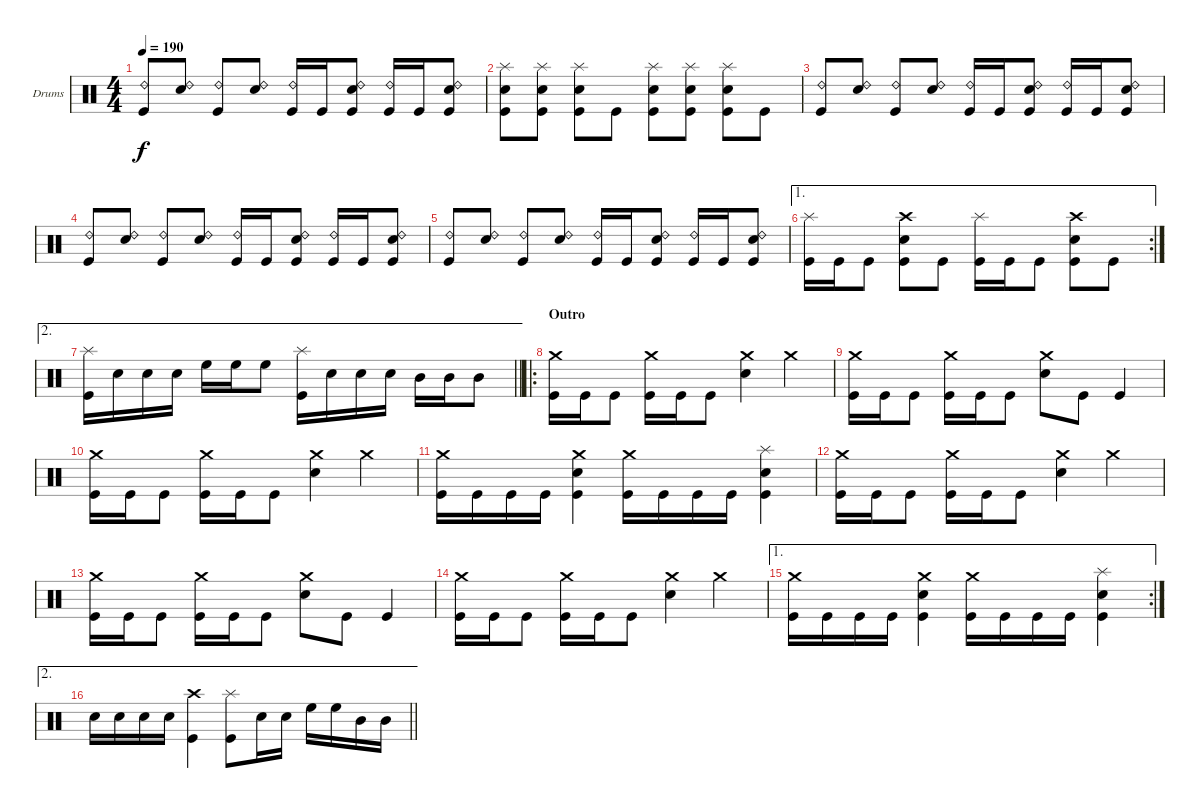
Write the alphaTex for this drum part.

\bracketExtendMode groupsimilarinstruments
\firstSystemTrackNameOrientation horizontal
\otherSystemsTrackNameOrientation horizontal
\track ("Drumkit" "Drums") {instrument percussion}
\staff {score}
\articulation defaults
\ts (4 4)
\tempo 190
\clef neutral
\ks c
("Kick (hit)" "Ride (bell) 2").8{dy f} ("Snare (hit) 2" "Ride (bell) 2").8 ("Kick (hit)" "Ride (bell) 2").8 ("Snare (hit) 2" "Ride (bell) 2").8 ("Kick (hit)" "Ride (bell) 2").16 "Kick (hit)".16 ("Kick (hit)" "Snare (hit) 2" "Ride (bell) 2").8 ("Kick (hit)" "Ride (bell) 2").16 "Kick (hit)".16 ("Kick (hit)" "Snare (hit) 2" "Ride (bell) 2").8 |
("Kick (hit)" "Snare (hit) 2" "Splash (hit)").8 ("Kick (hit)" "Snare (hit) 2" "Splash (hit)").8 ("Kick (hit)" "Snare (hit) 2" "Splash (hit)").8 "Kick (hit)".8 ("Kick (hit)" "Snare (hit) 2" "Splash (hit)").8 ("Kick (hit)" "Snare (hit) 2" "Splash (hit)").8 ("Kick (hit)" "Snare (hit) 2" "Splash (hit)").8 "Kick (hit)".8 |
("Kick (hit)" "Ride (bell) 2").8 ("Snare (hit) 2" "Ride (bell) 2").8 ("Kick (hit)" "Ride (bell) 2").8 ("Snare (hit) 2" "Ride (bell) 2").8 ("Kick (hit)" "Ride (bell) 2").16 "Kick (hit)".16 ("Kick (hit)" "Snare (hit) 2" "Ride (bell) 2").8 ("Kick (hit)" "Ride (bell) 2").16 "Kick (hit)".16 ("Kick (hit)" "Snare (hit) 2" "Ride (bell) 2").8 |
("Kick (hit)" "Ride (bell) 2").8 ("Snare (hit) 2" "Ride (bell) 2").8 ("Kick (hit)" "Ride (bell) 2").8 ("Snare (hit) 2" "Ride (bell) 2").8 ("Kick (hit)" "Ride (bell) 2").16 "Kick (hit)".16 ("Kick (hit)" "Snare (hit) 2" "Ride (bell) 2").8 ("Kick (hit)" "Ride (bell) 2").16 "Kick (hit)".16 ("Kick (hit)" "Snare (hit) 2" "Ride (bell) 2").8 |
("Kick (hit)" "Ride (bell) 2").8 ("Snare (hit) 2" "Ride (bell) 2").8 ("Kick (hit)" "Ride (bell) 2").8 ("Snare (hit) 2" "Ride (bell) 2").8 ("Kick (hit)" "Ride (bell) 2").16 "Kick (hit)".16 ("Kick (hit)" "Snare (hit) 2" "Ride (bell) 2").8 ("Kick (hit)" "Ride (bell) 2").16 "Kick (hit)".16 ("Kick (hit)" "Snare (hit) 2" "Ride (bell) 2").8 |
\ae 1
\rc 2
("Kick (hit)" "Splash (hit)").16 "Kick (hit)".16 "Kick (hit)".8 ("Kick (hit)" "Snare (hit) 2" "Crash high (hit)").8 "Kick (hit)".8 ("Kick (hit)" "Splash (hit)").16 "Kick (hit)".16 "Kick (hit)".8 ("Kick (hit)" "Snare (hit) 2" "Crash high (hit)").8 "Kick (hit)".8 |
\ae 2
\barLineRight lightlight
("Kick (hit)" "Splash (hit)").16 "Snare (hit) 2".16 "Snare (hit) 2".16 "Snare (hit) 2".16 "High Floor Tom (hit)".16 "High Floor Tom (hit)".16 "High Floor Tom (hit)".8 ("Kick (hit)" "Splash (hit)").16 "Snare (hit) 2".16 "Snare (hit) 2".16 "Snare (hit) 2".16 "Mid Tom (hit)".16 "Mid Tom (hit)".16 "Mid Tom (hit)".8 |
\ro
\section ("" "Outro")
("Kick (hit)" "Crash medium (hit)").16 "Kick (hit)".16 "Kick (hit)".8 ("Kick (hit)" "Crash medium (hit)").16 "Kick (hit)".16 "Kick (hit)".8 ("Snare (hit) 2" "Crash medium (hit)").4 "Crash medium (hit)".4 |
("Kick (hit)" "Crash medium (hit)").16 "Kick (hit)".16 "Kick (hit)".8 ("Kick (hit)" "Crash medium (hit)").16 "Kick (hit)".16 "Kick (hit)".8 ("Snare (hit) 2" "Crash medium (hit)").8 "Kick (hit)".8 "Kick (hit)".4 |
("Kick (hit)" "Crash medium (hit)").16 "Kick (hit)".16 "Kick (hit)".8 ("Kick (hit)" "Crash medium (hit)").16 "Kick (hit)".16 "Kick (hit)".8 ("Snare (hit) 2" "Crash medium (hit)").4 "Crash medium (hit)".4 |
("Kick (hit)" "Crash medium (hit)").16 "Kick (hit)".16 "Kick (hit)".16 "Kick (hit)".16 ("Kick (hit)" "Snare (hit) 2" "Crash medium (hit)").4 ("Kick (hit)" "Crash medium (hit)").16 "Kick (hit)".16 "Kick (hit)".16 "Kick (hit)".16 ("Kick (hit)" "Snare (hit) 2" "Splash (hit)").4 |
("Kick (hit)" "Crash medium (hit)").16 "Kick (hit)".16 "Kick (hit)".8 ("Kick (hit)" "Crash medium (hit)").16 "Kick (hit)".16 "Kick (hit)".8 ("Snare (hit) 2" "Crash medium (hit)").4 "Crash medium (hit)".4 |
("Kick (hit)" "Crash medium (hit)").16 "Kick (hit)".16 "Kick (hit)".8 ("Kick (hit)" "Crash medium (hit)").16 "Kick (hit)".16 "Kick (hit)".8 ("Snare (hit) 2" "Crash medium (hit)").8 "Kick (hit)".8 "Kick (hit)".4 |
("Kick (hit)" "Crash medium (hit)").16 "Kick (hit)".16 "Kick (hit)".8 ("Kick (hit)" "Crash medium (hit)").16 "Kick (hit)".16 "Kick (hit)".8 ("Snare (hit) 2" "Crash medium (hit)").4 "Crash medium (hit)".4 |
\ae 1
\rc 2
("Kick (hit)" "Crash medium (hit)").16 "Kick (hit)".16 "Kick (hit)".16 "Kick (hit)".16 ("Kick (hit)" "Snare (hit) 2" "Crash medium (hit)").4 ("Kick (hit)" "Crash medium (hit)").16 "Kick (hit)".16 "Kick (hit)".16 "Kick (hit)".16 ("Kick (hit)" "Snare (hit) 2" "Splash (hit)").4 |
\ae 2
\barLineRight lightlight "Snare (hit) 2".16 "Snare (hit) 2".16 "Snare (hit) 2".16 "Snare (hit) 2".16
("Kick (hit)" "Crash high (hit)").4 ("Kick (hit)" "Splash (hit)").8 "Snare (hit) 2".16 "Snare (hit) 2".16 "High Floor Tom (hit)".16 "High Floor Tom (hit)".16 "Mid Tom (hit)".16 "Mid Tom (hit)".16
